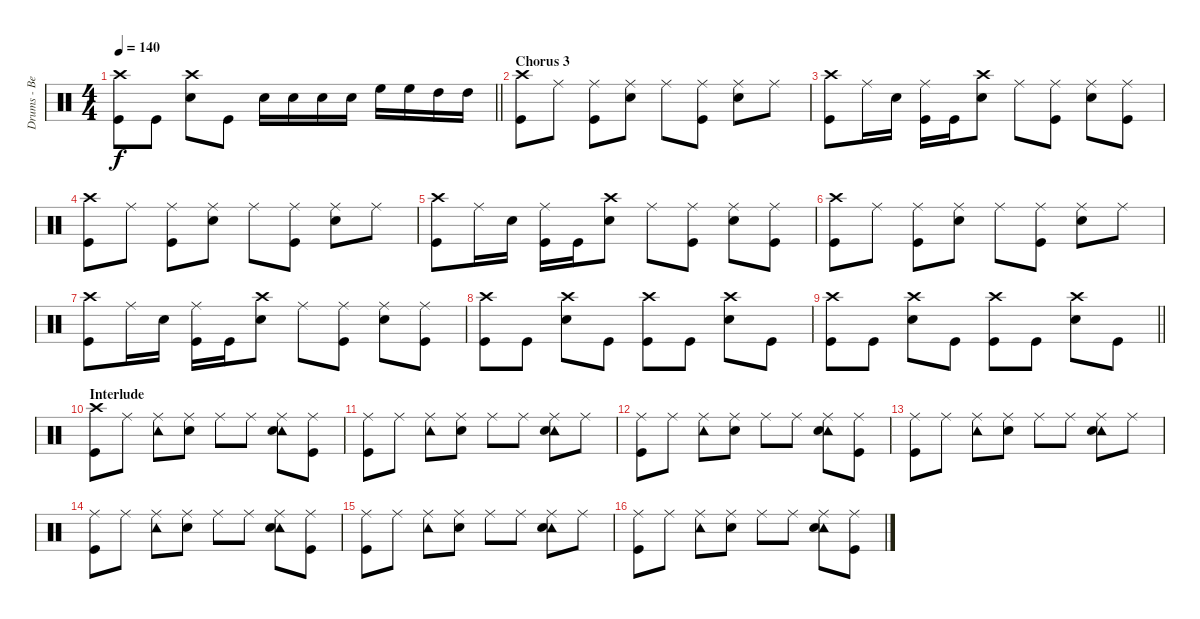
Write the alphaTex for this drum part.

\track ("Drums - Ben Johnston" "Drums - Be") {instrument percussion}
\staff {score}
\articulation defaults
\ts (4 4)
\tempo 140
\clef neutral
\barLineRight lightlight
\ks c
("Crash high (hit)" "Kick (hit)").8{dy f} "Kick (hit)".8 ("Crash high (hit)" "Snare (hit) 2").8 "Kick (hit)".8 "Snare (hit) 2".16 "Snare (hit) 2".16 "Snare (hit) 2".16 "Snare (hit) 2".16 "High Floor Tom (hit)".16 "High Floor Tom (hit)".16 "High Tom (hit)".16 "High Tom (hit)".16 |
\section ("" "Chorus 3")
("Crash high (hit)" "Kick (hit)").8 "Ride (middle)".8 ("Ride (middle)" "Kick (hit)").8 ("Ride (middle)" "Snare (hit) 2").8 "Ride (middle)".8 ("Ride (middle)" "Kick (hit)").8 ("Ride (middle)" "Snare (hit) 2").8 "Ride (middle)".8 |
("Crash high (hit)" "Kick (hit)").8 "Ride (middle)".16 "Snare (hit) 2".16 ("Ride (middle)" "Kick (hit)").16 "Kick (hit)".16 ("Crash high (hit)" "Snare (hit) 2").8 "Ride (middle)".8 ("Ride (middle)" "Kick (hit)").8 ("Ride (middle)" "Snare (hit) 2").8 ("Ride (middle)" "Kick (hit)").8 |
("Crash high (hit)" "Kick (hit)").8 "Ride (middle)".8 ("Ride (middle)" "Kick (hit)").8 ("Ride (middle)" "Snare (hit) 2").8 "Ride (middle)".8 ("Ride (middle)" "Kick (hit)").8 ("Ride (middle)" "Snare (hit) 2").8 "Ride (middle)".8 |
("Crash high (hit)" "Kick (hit)").8 "Ride (middle)".16 "Snare (hit) 2".16 ("Ride (middle)" "Kick (hit)").16 "Kick (hit)".16 ("Crash high (hit)" "Snare (hit) 2").8 "Ride (middle)".8 ("Ride (middle)" "Kick (hit)").8 ("Ride (middle)" "Snare (hit) 2").8 ("Ride (middle)" "Kick (hit)").8 |
("Crash high (hit)" "Kick (hit)").8 "Ride (middle)".8 ("Ride (middle)" "Kick (hit)").8 ("Ride (middle)" "Snare (hit) 2").8 "Ride (middle)".8 ("Ride (middle)" "Kick (hit)").8 ("Ride (middle)" "Snare (hit) 2").8 "Ride (middle)".8 |
("Crash high (hit)" "Kick (hit)").8 "Ride (middle)".16 "Snare (hit) 2".16 ("Ride (middle)" "Kick (hit)").16 "Kick (hit)".16 ("Crash high (hit)" "Snare (hit) 2").8 "Ride (middle)".8 ("Ride (middle)" "Kick (hit)").8 ("Ride (middle)" "Snare (hit) 2").8 ("Ride (middle)" "Kick (hit)").8 |
("Crash high (hit)" "Kick (hit)").8 "Kick (hit)".8 ("Crash high (hit)" "Snare (hit) 2").8 "Kick (hit)".8 ("Crash high (hit)" "Kick (hit)").8 "Kick (hit)".8 ("Crash high (hit)" "Snare (hit) 2").8 "Kick (hit)".8 |
\barLineRight lightlight
("Crash high (hit)" "Kick (hit)").8 "Kick (hit)".8 ("Crash high (hit)" "Snare (hit) 2").8 "Kick (hit)".8 ("Crash high (hit)" "Kick (hit)").8 "Kick (hit)".8 ("Crash high (hit)" "Snare (hit) 2").8 "Kick (hit)".8 |
\section ("" "Interlude")
("Crash high (hit)" "Kick (hit)").8 "Ride (middle)".8 ("Ride (middle)" "Tambourine (hit)").8 ("Ride (middle)" "Snare (hit) 2").8 "Ride (middle)".8 "Ride (middle)".8 ("Ride (middle)" "Tambourine (hit)" "Snare (hit) 2").8 ("Ride (middle)" "Kick (hit)").8 |
("Ride (middle)" "Kick (hit)").8 "Ride (middle)".8 ("Ride (middle)" "Tambourine (hit)").8 ("Ride (middle)" "Snare (hit) 2").8 "Ride (middle)".8 "Ride (middle)".8 ("Ride (middle)" "Tambourine (hit)" "Snare (hit) 2").8 "Ride (middle)".8 |
("Ride (middle)" "Kick (hit)").8 "Ride (middle)".8 ("Ride (middle)" "Tambourine (hit)").8 ("Ride (middle)" "Snare (hit) 2").8 "Ride (middle)".8 "Ride (middle)".8 ("Ride (middle)" "Tambourine (hit)" "Snare (hit) 2").8 ("Ride (middle)" "Kick (hit)").8 |
("Ride (middle)" "Kick (hit)").8 "Ride (middle)".8 ("Ride (middle)" "Tambourine (hit)").8 ("Ride (middle)" "Snare (hit) 2").8 "Ride (middle)".8 "Ride (middle)".8 ("Ride (middle)" "Tambourine (hit)" "Snare (hit) 2").8 "Ride (middle)".8 |
("Ride (middle)" "Kick (hit)").8 "Ride (middle)".8 ("Ride (middle)" "Tambourine (hit)").8 ("Ride (middle)" "Snare (hit) 2").8 "Ride (middle)".8 "Ride (middle)".8 ("Ride (middle)" "Tambourine (hit)" "Snare (hit) 2").8 ("Ride (middle)" "Kick (hit)").8 |
("Ride (middle)" "Kick (hit)").8 "Ride (middle)".8 ("Ride (middle)" "Tambourine (hit)").8 ("Ride (middle)" "Snare (hit) 2").8 "Ride (middle)".8 "Ride (middle)".8 ("Ride (middle)" "Tambourine (hit)" "Snare (hit) 2").8 "Ride (middle)".8 |
("Ride (middle)" "Kick (hit)").8 "Ride (middle)".8 ("Ride (middle)" "Tambourine (hit)").8 ("Ride (middle)" "Snare (hit) 2").8 "Ride (middle)".8 "Ride (middle)".8 ("Ride (middle)" "Tambourine (hit)" "Snare (hit) 2").8 ("Ride (middle)" "Kick (hit)").8
